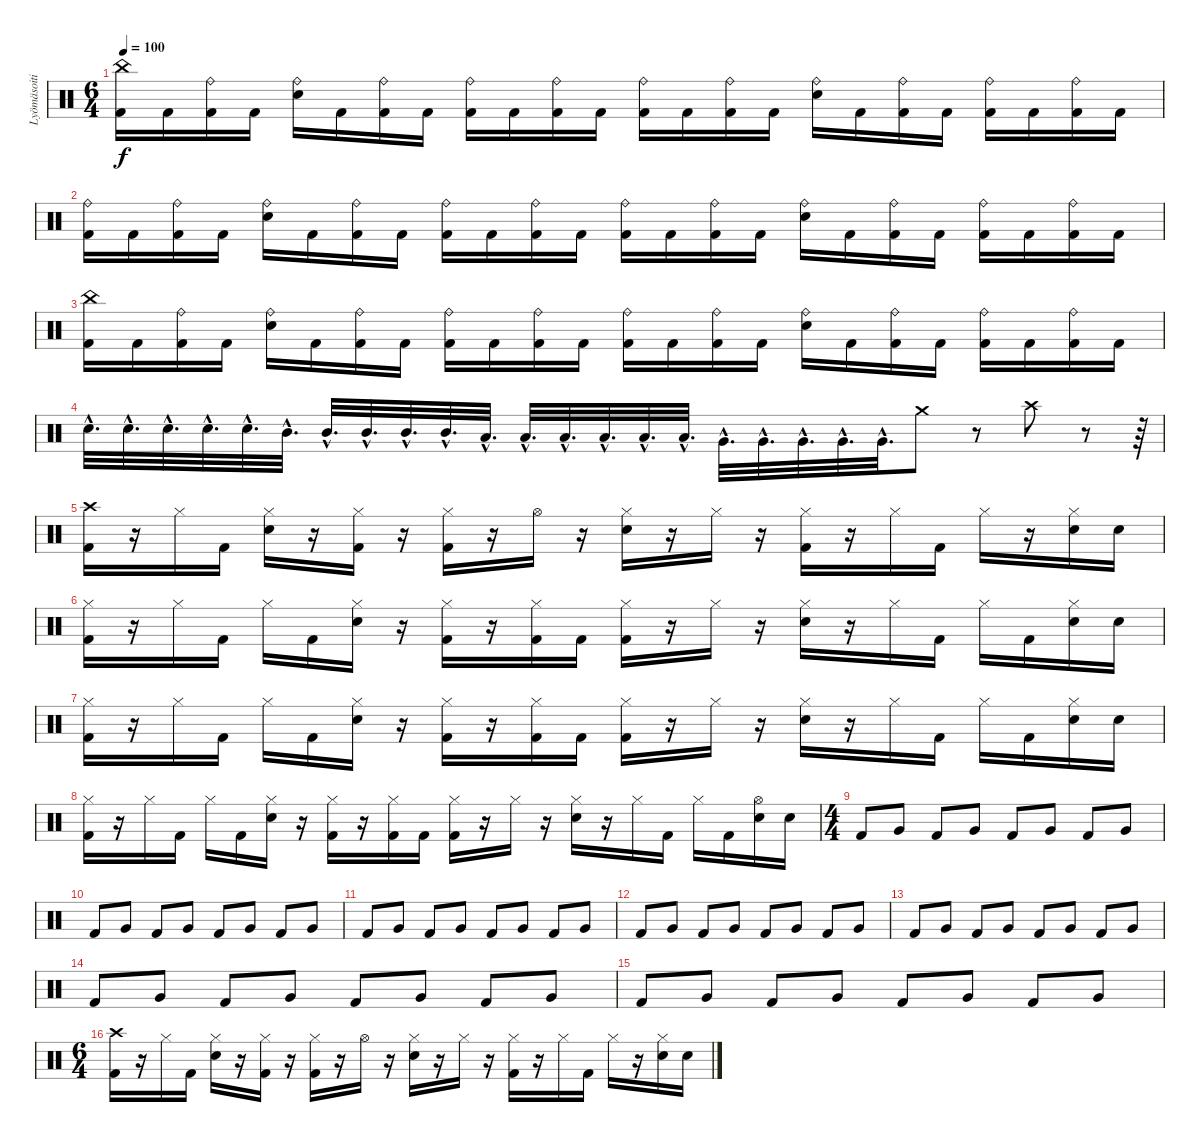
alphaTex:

\track ("Lyömäsoitin" "Lyömäsoiti") {instrument percussion}
\staff {score}
\articulation defaults
\ts (6 4)
\tempo 100
\clef neutral
\ks c
("China (hit)" "Kick (hit) 2").16{dy f} "Kick (hit) 2".16 ("Ride (bell)" "Kick (hit) 2").16 "Kick (hit) 2".16 ("Ride (bell)" "Snare (hit) 2").16 "Kick (hit) 2".16 ("Ride (bell)" "Kick (hit) 2").16 "Kick (hit) 2".16 ("Ride (bell)" "Kick (hit) 2").16 "Kick (hit) 2".16 ("Ride (bell)" "Kick (hit) 2").16 "Kick (hit) 2".16 ("Ride (bell)" "Kick (hit) 2").16 "Kick (hit) 2".16 ("Ride (bell)" "Kick (hit) 2").16 "Kick (hit) 2".16 ("Ride (bell)" "Snare (hit) 2").16 "Kick (hit) 2".16 ("Ride (bell)" "Kick (hit) 2").16 "Kick (hit) 2".16 ("Ride (bell)" "Kick (hit) 2").16 "Kick (hit) 2".16 ("Ride (bell)" "Kick (hit) 2").16 "Kick (hit) 2".16 |
("Ride (bell)" "Kick (hit) 2").16 "Kick (hit) 2".16 ("Ride (bell)" "Kick (hit) 2").16 "Kick (hit) 2".16 ("Ride (bell)" "Snare (hit) 2").16 "Kick (hit) 2".16 ("Ride (bell)" "Kick (hit) 2").16 "Kick (hit) 2".16 ("Ride (bell)" "Kick (hit) 2").16 "Kick (hit) 2".16 ("Ride (bell)" "Kick (hit) 2").16 "Kick (hit) 2".16 ("Ride (bell)" "Kick (hit) 2").16 "Kick (hit) 2".16 ("Ride (bell)" "Kick (hit) 2").16 "Kick (hit) 2".16 ("Ride (bell)" "Snare (hit) 2").16 "Kick (hit) 2".16 ("Ride (bell)" "Kick (hit) 2").16 "Kick (hit) 2".16 ("Ride (bell)" "Kick (hit) 2").16 "Kick (hit) 2".16 ("Ride (bell)" "Kick (hit) 2").16 "Kick (hit) 2".16 |
("China (hit)" "Kick (hit) 2").16 "Kick (hit) 2".16 ("Ride (bell)" "Kick (hit) 2").16 "Kick (hit) 2".16 ("Ride (bell)" "Snare (hit) 2").16 "Kick (hit) 2".16 ("Ride (bell)" "Kick (hit) 2").16 "Kick (hit) 2".16 ("Ride (bell)" "Kick (hit) 2").16 "Kick (hit) 2".16 ("Ride (bell)" "Kick (hit) 2").16 "Kick (hit) 2".16 ("Ride (bell)" "Kick (hit) 2").16 "Kick (hit) 2".16 ("Ride (bell)" "Kick (hit) 2").16 "Kick (hit) 2".16 ("Ride (bell)" "Snare (hit) 2").16 "Kick (hit) 2".16 ("Ride (bell)" "Kick (hit) 2").16 "Kick (hit) 2".16 ("Ride (bell)" "Kick (hit) 2").16 "Kick (hit) 2".16 ("Ride (bell)" "Kick (hit) 2").16 "Kick (hit) 2".16 |
"Snare (hit) 2"{hac}.32{d} "Snare (hit) 2"{hac}.32{d} "Snare (hit) 2"{hac}.32{d} "Snare (hit) 2"{hac}.32{d} "Snare (hit) 2"{hac}.32{d} "Mid Tom (hit)"{hac}.32{d} "Mid Tom (hit)"{hac}.32{d} "Mid Tom (hit)"{hac}.32{d} "Mid Tom (hit)"{hac}.32{d} "Mid Tom (hit)"{hac}.32{d} "Low Tom (hit)"{hac}.32{d} "Low Tom (hit)"{hac}.32{d} "Low Tom (hit)"{hac}.32{d} "Low Tom (hit)"{hac}.32{d} "Low Tom (hit)"{hac}.32{d} "Low Tom (hit)"{hac}.32{d} "Very Low Tom (hit)"{hac}.32{d} "Very Low Tom (hit)"{hac}.32{d} "Very Low Tom (hit)"{hac}.32{d} "Very Low Tom (hit)"{hac}.32{d} "Very Low Tom (hit)"{hac}.32{d} "Crash medium (hit)".8 r.8 "Crash high (hit)".8 r.8 r.64 |
("Crash high (hit)" "Kick (hit) 2").16 r.16 "Hi-Hat (closed)".16 "Kick (hit) 2".16 ("Hi-Hat (closed)" "Snare (hit) 2").16 r.16 ("Hi-Hat (closed)" "Kick (hit) 2").16 r.16 ("Hi-Hat (closed)" "Kick (hit) 2").16 r.16 "Hi-Hat (open)".16 r.16 ("Hi-Hat (closed)" "Snare (hit) 2").16 r.16 "Hi-Hat (closed)".16 r.16 ("Hi-Hat (closed)" "Kick (hit) 2").16 r.16 "Hi-Hat (closed)".16 "Kick (hit) 2".16 "Hi-Hat (closed)".16 r.16 ("Hi-Hat (closed)" "Snare (hit) 2").16 "Snare (hit) 2".16 |
("Hi-Hat (closed)" "Kick (hit) 2").16 r.16 "Hi-Hat (closed)".16 "Kick (hit) 2".16 "Hi-Hat (closed)".16 "Kick (hit) 2".16 ("Hi-Hat (closed)" "Snare (hit) 2").16 r.16 ("Hi-Hat (closed)" "Kick (hit) 2").16 r.16 ("Hi-Hat (closed)" "Kick (hit) 2").16 "Kick (hit) 2".16 ("Hi-Hat (closed)" "Kick (hit) 2").16 r.16 "Hi-Hat (closed)".16 r.16 ("Hi-Hat (closed)" "Snare (hit) 2").16 r.16 "Hi-Hat (closed)".16 "Kick (hit) 2".16 "Hi-Hat (closed)".16 "Kick (hit) 2".16 ("Hi-Hat (closed)" "Snare (hit) 2").16 "Snare (hit) 2".16 |
("Hi-Hat (closed)" "Kick (hit) 2").16 r.16 "Hi-Hat (closed)".16 "Kick (hit) 2".16 "Hi-Hat (closed)".16 "Kick (hit) 2".16 ("Hi-Hat (closed)" "Snare (hit) 2").16 r.16 ("Hi-Hat (closed)" "Kick (hit) 2").16 r.16 ("Hi-Hat (closed)" "Kick (hit) 2").16 "Kick (hit) 2".16 ("Hi-Hat (closed)" "Kick (hit) 2").16 r.16 "Hi-Hat (closed)".16 r.16 ("Hi-Hat (closed)" "Snare (hit) 2").16 r.16 "Hi-Hat (closed)".16 "Kick (hit) 2".16 "Hi-Hat (closed)".16 "Kick (hit) 2".16 ("Hi-Hat (closed)" "Snare (hit) 2").16 "Snare (hit) 2".16 |
("Hi-Hat (closed)" "Kick (hit) 2").16 r.16 "Hi-Hat (closed)".16 "Kick (hit) 2".16 "Hi-Hat (closed)".16 "Kick (hit) 2".16 ("Hi-Hat (closed)" "Snare (hit) 2").16 r.16 ("Hi-Hat (closed)" "Kick (hit) 2").16 r.16 ("Hi-Hat (closed)" "Kick (hit) 2").16 "Kick (hit) 2".16 ("Hi-Hat (closed)" "Kick (hit) 2").16 r.16 "Hi-Hat (closed)".16 r.16 ("Hi-Hat (closed)" "Snare (hit) 2").16 r.16 "Hi-Hat (closed)".16 "Kick (hit) 2".16 "Hi-Hat (closed)".16 "Kick (hit) 2".16 ("Hi-Hat (open)" "Snare (hit) 2").16 "Snare (hit) 2".16 |
\ts (4 4)
"Kick (hit) 2".8 "Very Low Tom (hit)".8 "Kick (hit) 2".8 "Very Low Tom (hit)".8 "Kick (hit) 2".8 "Very Low Tom (hit)".8 "Kick (hit) 2".8 "Very Low Tom (hit)".8 |
"Kick (hit) 2".8 "Very Low Tom (hit)".8 "Kick (hit) 2".8 "Very Low Tom (hit)".8 "Kick (hit) 2".8 "Very Low Tom (hit)".8 "Kick (hit) 2".8 "Very Low Tom (hit)".8 |
"Kick (hit) 2".8 "Very Low Tom (hit)".8 "Kick (hit) 2".8 "Very Low Tom (hit)".8 "Kick (hit) 2".8 "Very Low Tom (hit)".8 "Kick (hit) 2".8 "Very Low Tom (hit)".8 |
"Kick (hit) 2".8 "Very Low Tom (hit)".8 "Kick (hit) 2".8 "Very Low Tom (hit)".8 "Kick (hit) 2".8 "Very Low Tom (hit)".8 "Kick (hit) 2".8 "Very Low Tom (hit)".8 |
"Kick (hit) 2".8 "Very Low Tom (hit)".8 "Kick (hit) 2".8 "Very Low Tom (hit)".8 "Kick (hit) 2".8 "Very Low Tom (hit)".8 "Kick (hit) 2".8 "Very Low Tom (hit)".8 |
"Kick (hit) 2".8 "Very Low Tom (hit)".8 "Kick (hit) 2".8 "Very Low Tom (hit)".8 "Kick (hit) 2".8 "Very Low Tom (hit)".8 "Kick (hit) 2".8 "Very Low Tom (hit)".8 |
"Kick (hit) 2".8 "Very Low Tom (hit)".8 "Kick (hit) 2".8 "Very Low Tom (hit)".8 "Kick (hit) 2".8 "Very Low Tom (hit)".8 "Kick (hit) 2".8 "Very Low Tom (hit)".8 |
\ts (6 4)
("Crash high (hit)" "Kick (hit) 2").16 r.16 "Hi-Hat (closed)".16 "Kick (hit) 2".16 ("Hi-Hat (closed)" "Snare (hit) 2").16 r.16 ("Hi-Hat (closed)" "Kick (hit) 2").16 r.16 ("Hi-Hat (closed)" "Kick (hit) 2").16 r.16 "Hi-Hat (open)".16 r.16 ("Hi-Hat (closed)" "Snare (hit) 2").16 r.16 "Hi-Hat (closed)".16 r.16 ("Hi-Hat (closed)" "Kick (hit) 2").16 r.16 "Hi-Hat (closed)".16 "Kick (hit) 2".16 "Hi-Hat (closed)".16 r.16 ("Hi-Hat (closed)" "Snare (hit) 2").16 "Snare (hit) 2".16
